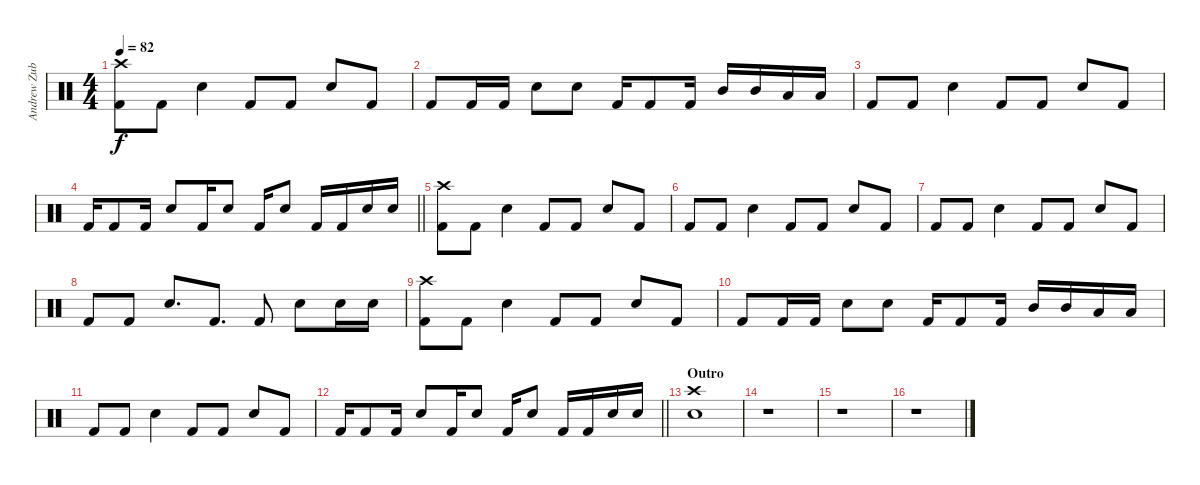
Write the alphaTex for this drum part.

\track ("Andrew Zubiszewski (Drums)" "Andrew Zub") {instrument percussion}
\staff {score}
\articulation defaults
\ts (4 4)
\tempo 82
\clef neutral
\ks c
("Crash high (hit)" "Kick (hit) 2").8{dy f} "Kick (hit) 2".8 "Electric Snare (hit)".4 "Kick (hit) 2".8 "Kick (hit) 2".8 "Electric Snare (hit)".8 "Kick (hit) 2".8 |
"Kick (hit) 2".8 "Kick (hit) 2".16 "Kick (hit) 2".16 "Electric Snare (hit)".8 "Electric Snare (hit)".8 "Kick (hit) 2".16 "Kick (hit) 2".8 "Kick (hit) 2".16 "Mid Tom (hit)".16 "Mid Tom (hit)".16 "Low Tom (hit)".16 "Low Tom (hit)".16 |
"Kick (hit) 2".8 "Kick (hit) 2".8 "Electric Snare (hit)".4 "Kick (hit) 2".8 "Kick (hit) 2".8 "Electric Snare (hit)".8 "Kick (hit) 2".8 |
\barLineRight lightlight "Kick (hit) 2".16 "Kick (hit) 2".8 "Kick (hit) 2".16 "Electric Snare (hit)".8 "Kick (hit) 2".16 "Electric Snare (hit)".8 "Kick (hit) 2".16 "Electric Snare (hit)".8 "Kick (hit) 2".16 "Kick (hit) 2".16 "Electric Snare (hit)".16 "Electric Snare (hit)".16
|
("Crash high (hit)" "Kick (hit) 2").8 "Kick (hit) 2".8 "Electric Snare (hit)".4 "Kick (hit) 2".8 "Kick (hit) 2".8 "Electric Snare (hit)".8 "Kick (hit) 2".8 |
"Kick (hit) 2".8 "Kick (hit) 2".8 "Electric Snare (hit)".4 "Kick (hit) 2".8 "Kick (hit) 2".8 "Electric Snare (hit)".8 "Kick (hit) 2".8 |
"Kick (hit) 2".8 "Kick (hit) 2".8 "Electric Snare (hit)".4 "Kick (hit) 2".8 "Kick (hit) 2".8 "Electric Snare (hit)".8 "Kick (hit) 2".8 |
"Kick (hit) 2".8 "Kick (hit) 2".8 "Electric Snare (hit)".8{d} "Kick (hit) 2".8{d} "Kick (hit) 2".8 "Electric Snare (hit)".8 "Electric Snare (hit)".16 "Electric Snare (hit)".16 |
("Crash high (hit)" "Kick (hit) 2").8 "Kick (hit) 2".8 "Electric Snare (hit)".4 "Kick (hit) 2".8 "Kick (hit) 2".8 "Electric Snare (hit)".8 "Kick (hit) 2".8 |
"Kick (hit) 2".8 "Kick (hit) 2".16 "Kick (hit) 2".16 "Electric Snare (hit)".8 "Electric Snare (hit)".8 "Kick (hit) 2".16 "Kick (hit) 2".8 "Kick (hit) 2".16 "Mid Tom (hit)".16 "Mid Tom (hit)".16 "Low Tom (hit)".16 "Low Tom (hit)".16 |
"Kick (hit) 2".8 "Kick (hit) 2".8 "Electric Snare (hit)".4 "Kick (hit) 2".8 "Kick (hit) 2".8 "Electric Snare (hit)".8 "Kick (hit) 2".8 |
\barLineRight lightlight "Kick (hit) 2".16 "Kick (hit) 2".8 "Kick (hit) 2".16 "Electric Snare (hit)".8 "Kick (hit) 2".16 "Electric Snare (hit)".8 "Kick (hit) 2".16 "Electric Snare (hit)".8 "Kick (hit) 2".16 "Kick (hit) 2".16 "Electric Snare (hit)".16 "Electric Snare (hit)".16
|
\section ("" "Outro")
("Crash high (hit)" "Electric Snare (hit)").1 |
r.1 |
r.1 |
r.1
